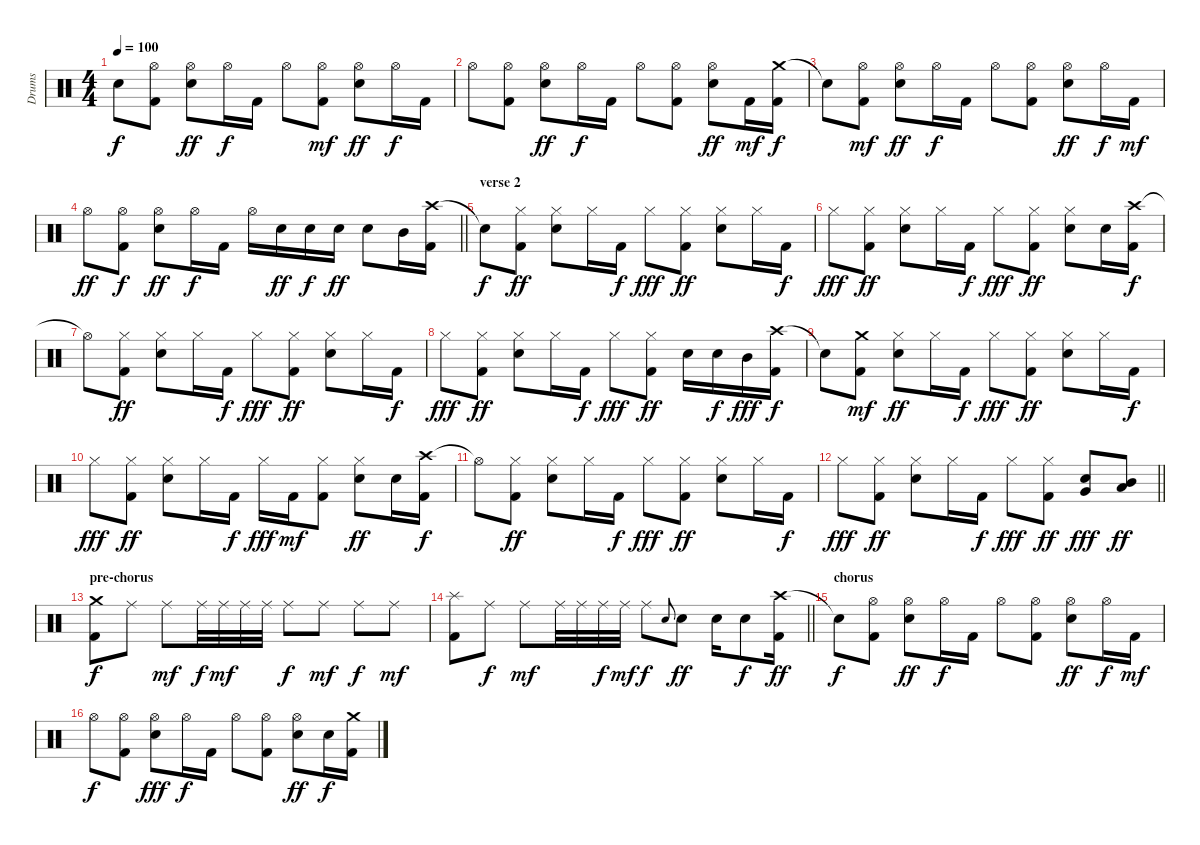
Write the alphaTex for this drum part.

\track ("Drums" "Drums") {instrument percussion}
\staff {score}
\articulation defaults
\ts (4 4)
\tempo 100
\clef neutral
\ks c "Snare (hit)"{t}.8{dy f}
("Hi-Hat (open)" "Kick (hit) 2").8 ("Hi-Hat (open)" "Snare (hit) 2").8{dy ff} "Hi-Hat (open)".16{dy f} "Kick (hit) 2".16 "Hi-Hat (open)".8 ("Hi-Hat (open)" "Kick (hit) 2").8{dy mf} ("Hi-Hat (open)" "Snare (hit) 2").8{dy ff} "Hi-Hat (open)".16{dy f} "Kick (hit) 2".16 |
"Hi-Hat (open)".8 ("Hi-Hat (open)" "Kick (hit) 2").8 ("Hi-Hat (open)" "Snare (hit) 2").8{dy ff} "Hi-Hat (open)".16{dy f} "Kick (hit) 2".16 "Hi-Hat (open)".8 ("Hi-Hat (open)" "Kick (hit) 2").8 ("Hi-Hat (open)" "Snare (hit) 2").8{dy ff} "Kick (hit) 2".16{dy mf} ("Crash medium (hit)" "Kick (hit) 2").16{dy f} |
"Snare (hit)"{t}.8 ("Hi-Hat (open)" "Kick (hit) 2").8{dy mf} ("Hi-Hat (open)" "Snare (hit) 2").8{dy ff} "Hi-Hat (open)".16{dy f} "Kick (hit) 2".16 "Hi-Hat (open)".8 ("Hi-Hat (open)" "Kick (hit) 2").8 ("Hi-Hat (open)" "Snare (hit) 2").8{dy ff} "Hi-Hat (open)".16{dy f} "Kick (hit) 2".16{dy mf} |
\barLineRight lightlight "Hi-Hat (open)".8{dy ff}
("Hi-Hat (open)" "Kick (hit) 2").8{dy f} ("Hi-Hat (open)" "Snare (hit) 2").8{dy ff} "Hi-Hat (open)".16{dy f} "Kick (hit) 2".16 "Hi-Hat (open)".16 "Snare (hit) 2".16{dy ff} "Snare (hit) 2".16{dy f} "Snare (hit) 2".16{dy ff} "Snare (hit) 2".8 "Mid Tom (hit)".16 ("Crash high (hit)" "Kick (hit) 2").16 |
\section ("" "verse 2")
"Snare (hit)"{t}.8{dy f} ("Hi-Hat (closed)" "Kick (hit) 2").8{dy ff} ("Hi-Hat (closed)" "Snare (hit) 2").8 "Hi-Hat (closed)".16 "Kick (hit) 2".16{dy f} "Hi-Hat (closed)".8{dy fff} ("Hi-Hat (closed)" "Kick (hit) 2").8{dy ff} ("Hi-Hat (closed)" "Snare (hit) 2").8 "Hi-Hat (closed)".16 "Kick (hit) 2".16{dy f} |
"Hi-Hat (closed)".8{dy fff} ("Hi-Hat (closed)" "Kick (hit) 2").8{dy ff} ("Hi-Hat (closed)" "Snare (hit) 2").8 "Hi-Hat (closed)".16 "Kick (hit) 2".16{dy f} "Hi-Hat (closed)".8{dy fff} ("Hi-Hat (closed)" "Kick (hit) 2").8{dy ff} ("Hi-Hat (closed)" "Snare (hit) 2").8 "Snare (hit) 2".16 ("Crash high (hit)" "Kick (hit) 2").16{dy f} |
"Hi-Hat (open)"{t}.8 ("Hi-Hat (closed)" "Kick (hit) 2").8{dy ff} ("Hi-Hat (closed)" "Snare (hit) 2").8 "Hi-Hat (closed)".16 "Kick (hit) 2".16{dy f} "Hi-Hat (closed)".8{dy fff} ("Hi-Hat (closed)" "Kick (hit) 2").8{dy ff} ("Hi-Hat (closed)" "Snare (hit) 2").8 "Hi-Hat (closed)".16 "Kick (hit) 2".16{dy f} |
"Hi-Hat (closed)".8{dy fff} ("Hi-Hat (closed)" "Kick (hit) 2").8{dy ff} ("Hi-Hat (closed)" "Snare (hit) 2").8 "Hi-Hat (closed)".16 "Kick (hit) 2".16{dy f} "Hi-Hat (closed)".8{dy fff} ("Hi-Hat (closed)" "Kick (hit) 2").8{dy ff} "Snare (hit) 2".16 "Snare (hit) 2".16{dy f} "Mid Tom (hit)".16{dy fff} ("Crash high (hit)" "Kick (hit) 2").16{dy f} |
"Snare (hit)"{t}.8 ("Crash medium (hit)" "Kick (hit) 2").8{dy mf} ("Hi-Hat (closed)" "Snare (hit) 2").8{dy ff} "Hi-Hat (closed)".16 "Kick (hit) 2".16{dy f} "Hi-Hat (closed)".8{dy fff} ("Hi-Hat (closed)" "Kick (hit) 2").8{dy ff} ("Hi-Hat (closed)" "Snare (hit) 2").8 "Hi-Hat (closed)".16 "Kick (hit) 2".16{dy f} |
"Hi-Hat (closed)".8{dy fff} ("Hi-Hat (closed)" "Kick (hit) 2").8{dy ff} ("Hi-Hat (closed)" "Snare (hit) 2").8 "Hi-Hat (closed)".16 "Kick (hit) 2".16{dy f} "Hi-Hat (closed)".16{dy fff} "Kick (hit) 2".16{dy mf} ("Hi-Hat (closed)" "Kick (hit) 2").8 ("Hi-Hat (closed)" "Snare (hit) 2").8{dy ff} "Snare (hit) 2".16 ("Crash high (hit)" "Kick (hit) 2").16{dy f} |
"Hi-Hat (open)"{t}.8 ("Hi-Hat (closed)" "Kick (hit) 2").8{dy ff} ("Hi-Hat (closed)" "Snare (hit) 2").8 "Hi-Hat (closed)".16 "Kick (hit) 2".16{dy f} "Hi-Hat (closed)".8{dy fff} ("Hi-Hat (closed)" "Kick (hit) 2").8{dy ff} ("Hi-Hat (closed)" "Snare (hit) 2").8 "Hi-Hat (closed)".16 "Kick (hit) 2".16{dy f} |
\barLineRight lightlight "Hi-Hat (closed)".8{dy fff}
("Hi-Hat (closed)" "Kick (hit) 2").8{dy ff} ("Hi-Hat (closed)" "Snare (hit) 2").8 "Hi-Hat (closed)".16 "Kick (hit) 2".16{dy f} "Hi-Hat (closed)".8{dy fff} ("Hi-Hat (closed)" "Kick (hit) 2").8{dy ff} ("Very Low Tom (hit)" "Snare (hit) 2").8{dy fff} ("Low Tom (hit)" "Mid Tom (hit)").8{dy ff} |
\section ("" "pre-chorus")
("Crash medium (hit)" "Kick (hit) 2").8{dy f} "Ride (middle)".8 "Ride (middle)".8{dy mf} "Ride (middle)".32{dy f} "Ride (middle)".32{dy mf} "Ride (middle)".32 "Ride (middle)".32 "Ride (middle)".8{dy f} "Ride (middle)".8{dy mf} "Ride (middle)".8{dy f} "Ride (middle)".8{dy mf} |
\barLineRight lightlight
("Splash (hit)" "Kick (hit) 2").8 "Ride (middle)".8{dy f} "Ride (middle)".8{dy mf} "Ride (middle)".32 "Ride (middle)".32 "Ride (middle)".32{dy f} "Ride (middle)".32{dy mf} "Ride (middle)".8{dy f} "Snare (hit) 2".8{gr onbeat} "Snare (hit) 2".8{dy ff} "Snare (hit) 2".16 "Snare (hit) 2".8{dy f} ("Crash high (hit)" "Kick (hit) 2").16{dy ff} |
\section ("" "chorus")
"Snare (hit)"{t}.8{dy f} ("Hi-Hat (open)" "Kick (hit) 2").8 ("Hi-Hat (open)" "Snare (hit) 2").8{dy ff} "Hi-Hat (open)".16{dy f} "Kick (hit) 2".16 "Hi-Hat (open)".8 ("Hi-Hat (open)" "Kick (hit) 2").8 ("Hi-Hat (open)" "Snare (hit) 2").8{dy ff} "Hi-Hat (open)".16{dy f} "Kick (hit) 2".16{dy mf} |
"Hi-Hat (open)".8{dy f} ("Hi-Hat (open)" "Kick (hit) 2").8 ("Hi-Hat (open)" "Snare (hit) 2").8{dy fff} "Hi-Hat (open)".16{dy f} "Kick (hit) 2".16 "Hi-Hat (open)".8 ("Hi-Hat (open)" "Kick (hit) 2").8 ("Hi-Hat (open)" "Snare (hit) 2").8{dy ff} "Snare (hit) 2".16{dy f} ("Crash medium (hit)" "Kick (hit) 2").16
